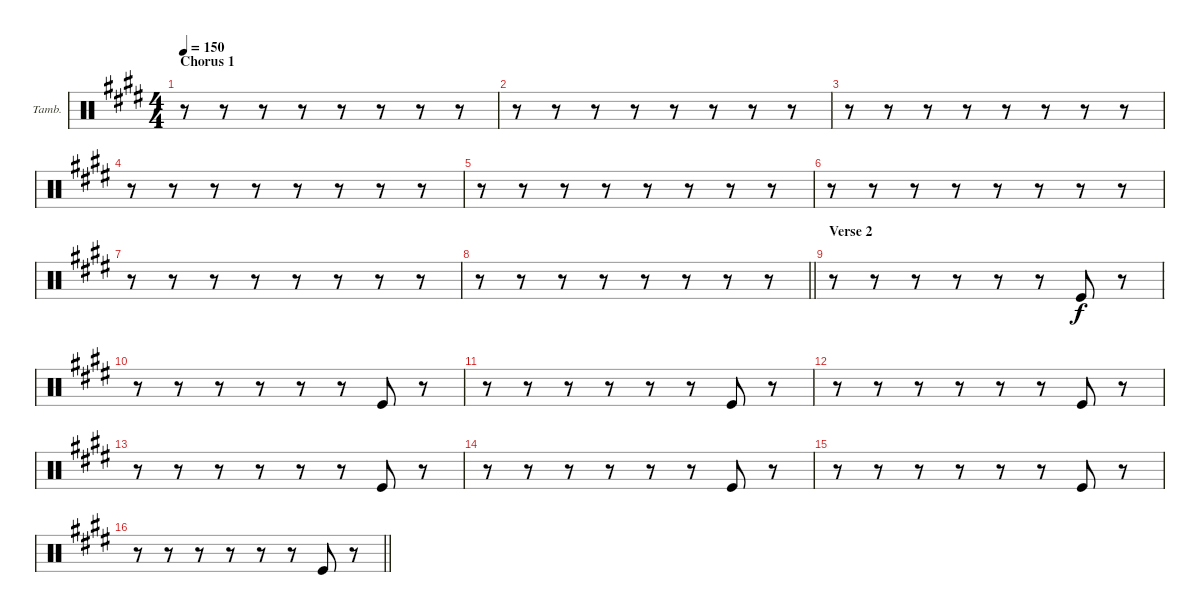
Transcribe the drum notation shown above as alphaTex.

\bracketExtendMode groupsimilarinstruments
\firstSystemTrackNameOrientation horizontal
\otherSystemsTrackNameOrientation horizontal
\track ("Tambourine" "Tamb.") {instrument percussion}
\staff {score}
\articulation defaults
\ts (4 4)
\section ("" "Chorus 1")
\tempo 150
\clef neutral
\ks e
r.8{dy f} r.8 r.8 r.8 r.8 r.8 r.8 r.8 |
r.8 r.8 r.8 r.8 r.8 r.8 r.8 r.8 |
r.8 r.8 r.8 r.8 r.8 r.8 r.8 r.8 |
r.8 r.8 r.8 r.8 r.8 r.8 r.8 r.8 |
r.8 r.8 r.8 r.8 r.8 r.8 r.8 r.8 |
r.8 r.8 r.8 r.8 r.8 r.8 r.8 r.8 |
r.8 r.8 r.8 r.8 r.8 r.8 r.8 r.8 |
\barLineRight lightlight
r.8 r.8 r.8 r.8 r.8 r.8 r.8 r.8 |
\section ("" "Verse 2")
r.8 r.8 r.8 r.8 r.8 r.8 "Kick (hit)".8 r.8 |
r.8 r.8 r.8 r.8 r.8 r.8 "Kick (hit)".8 r.8 |
r.8 r.8 r.8 r.8 r.8 r.8 "Kick (hit)".8 r.8 |
r.8 r.8 r.8 r.8 r.8 r.8 "Kick (hit)".8 r.8 |
r.8 r.8 r.8 r.8 r.8 r.8 "Kick (hit)".8 r.8 |
r.8 r.8 r.8 r.8 r.8 r.8 "Kick (hit)".8 r.8 |
r.8 r.8 r.8 r.8 r.8 r.8 "Kick (hit)".8 r.8 |
\barLineRight lightlight
r.8 r.8 r.8 r.8 r.8 r.8 "Kick (hit)".8 r.8
